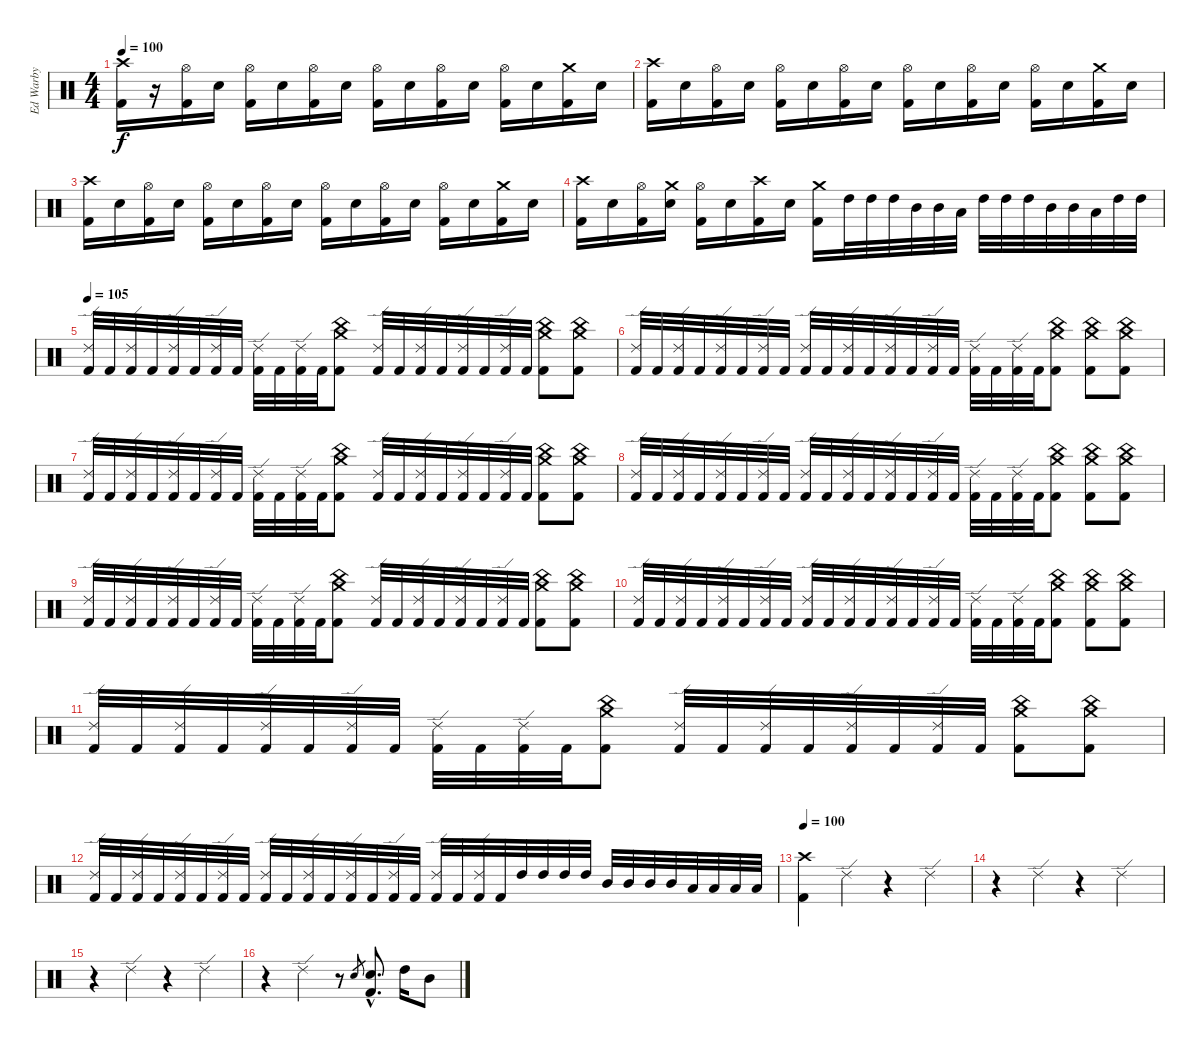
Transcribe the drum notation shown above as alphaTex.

\track ("Ed Warby" "Ed Warby") {instrument percussion}
\staff {score}
\articulation defaults
\ts (4 4)
\tempo 100
\clef neutral
\ks c
("Crash high (hit)" "Kick (hit) 2").16{dy f} r.16 ("Hi-Hat (open)" "Kick (hit) 2").16 "Snare (hit) 2".16 ("Hi-Hat (open)" "Kick (hit) 2").16 "Snare (hit) 2".16 ("Hi-Hat (open)" "Kick (hit) 2").16 "Snare (hit) 2".16 ("Hi-Hat (open)" "Kick (hit) 2").16 "Snare (hit) 2".16 ("Hi-Hat (open)" "Kick (hit) 2").16 "Snare (hit) 2".16 ("Hi-Hat (open)" "Kick (hit) 2").16 "Snare (hit) 2".16 ("Crash medium (hit)" "Kick (hit) 2").16 "Snare (hit) 2".16 |
("Crash high (hit)" "Kick (hit) 2").16 "Snare (hit) 2".16 ("Hi-Hat (open)" "Kick (hit) 2").16 "Snare (hit) 2".16 ("Hi-Hat (open)" "Kick (hit) 2").16 "Snare (hit) 2".16 ("Hi-Hat (open)" "Kick (hit) 2").16 "Snare (hit) 2".16 ("Hi-Hat (open)" "Kick (hit) 2").16 "Snare (hit) 2".16 ("Hi-Hat (open)" "Kick (hit) 2").16 "Snare (hit) 2".16 ("Hi-Hat (open)" "Kick (hit) 2").16 "Snare (hit) 2".16 ("Crash medium (hit)" "Kick (hit) 2").16 "Snare (hit) 2".16 |
("Crash high (hit)" "Kick (hit) 2").16 "Snare (hit) 2".16 ("Hi-Hat (open)" "Kick (hit) 2").16 "Snare (hit) 2".16 ("Hi-Hat (open)" "Kick (hit) 2").16 "Snare (hit) 2".16 ("Hi-Hat (open)" "Kick (hit) 2").16 "Snare (hit) 2".16 ("Hi-Hat (open)" "Kick (hit) 2").16 "Snare (hit) 2".16 ("Hi-Hat (open)" "Kick (hit) 2").16 "Snare (hit) 2".16 ("Hi-Hat (open)" "Kick (hit) 2").16 "Snare (hit) 2".16 ("Crash medium (hit)" "Kick (hit) 2").16 "Snare (hit) 2".16 |
("Crash high (hit)" "Kick (hit) 2").16 "Snare (hit) 2".16 ("Hi-Hat (open)" "Kick (hit) 2").16 ("Crash medium (hit)" "Snare (hit) 2").16 ("Hi-Hat (open)" "Kick (hit) 2").16 "Snare (hit) 2".16 ("Crash high (hit)" "Kick (hit) 2").16 "Snare (hit) 2".16 ("Crash medium (hit)" "Kick (hit) 2").16 "High Tom (hit)".32 "High Tom (hit)".32 "High Tom (hit)".32 "Mid Tom (hit)".32 "Mid Tom (hit)".32 "Low Tom (hit)".32 "High Tom (hit)".32 "High Tom (hit)".32 "High Tom (hit)".32 "Mid Tom (hit)".32 "Mid Tom (hit)".32 "Low Tom (hit)".32 "High Tom (hit)".32 "High Tom (hit)".32 |
\tempo 105
("Ride (edge) 2" "Kick (hit) 2").32 "Kick (hit) 2".32 ("Ride (edge) 2" "Kick (hit) 2").32 "Kick (hit) 2".32 ("Ride (edge) 2" "Kick (hit) 2").32 "Kick (hit) 2".32 ("Ride (edge) 2" "Kick (hit) 2").32 "Kick (hit) 2".32 ("Ride (edge) 2" "Kick (hit) 2").32 "Kick (hit) 2".32 ("Ride (edge) 2" "Kick (hit) 2").32 "Kick (hit) 2".32 ("China (hit)" "Crash medium (hit)" "Kick (hit) 2").8 ("Ride (edge) 2" "Kick (hit) 2").32 "Kick (hit) 2".32 ("Ride (edge) 2" "Kick (hit) 2").32 "Kick (hit) 2".32 ("Ride (edge) 2" "Kick (hit) 2").32 "Kick (hit) 2".32 ("Ride (edge) 2" "Kick (hit) 2").32 "Kick (hit) 2".32 ("China (hit)" "Crash medium (hit)" "Kick (hit) 2").8 ("China (hit)" "Crash medium (hit)" "Kick (hit) 2").8 |
("Ride (edge) 2" "Kick (hit) 2").32 "Kick (hit) 2".32 ("Ride (edge) 2" "Kick (hit) 2").32 "Kick (hit) 2".32 ("Ride (edge) 2" "Kick (hit) 2").32 "Kick (hit) 2".32 ("Ride (edge) 2" "Kick (hit) 2").32 "Kick (hit) 2".32 ("Ride (edge) 2" "Kick (hit) 2").32 "Kick (hit) 2".32 ("Ride (edge) 2" "Kick (hit) 2").32 "Kick (hit) 2".32 ("Ride (edge) 2" "Kick (hit) 2").32 "Kick (hit) 2".32 ("Ride (edge) 2" "Kick (hit) 2").32 "Kick (hit) 2".32 ("Ride (edge) 2" "Kick (hit) 2").32 "Kick (hit) 2".32 ("Ride (edge) 2" "Kick (hit) 2").32 "Kick (hit) 2".32 ("China (hit)" "Crash medium (hit)" "Kick (hit) 2").8 ("China (hit)" "Crash medium (hit)" "Kick (hit) 2").8 ("China (hit)" "Crash medium (hit)" "Kick (hit) 2").8 |
("Ride (edge) 2" "Kick (hit) 2").32 "Kick (hit) 2".32 ("Ride (edge) 2" "Kick (hit) 2").32 "Kick (hit) 2".32 ("Ride (edge) 2" "Kick (hit) 2").32 "Kick (hit) 2".32 ("Ride (edge) 2" "Kick (hit) 2").32 "Kick (hit) 2".32 ("Ride (edge) 2" "Kick (hit) 2").32 "Kick (hit) 2".32 ("Ride (edge) 2" "Kick (hit) 2").32 "Kick (hit) 2".32 ("China (hit)" "Crash medium (hit)" "Kick (hit) 2").8 ("Ride (edge) 2" "Kick (hit) 2").32 "Kick (hit) 2".32 ("Ride (edge) 2" "Kick (hit) 2").32 "Kick (hit) 2".32 ("Ride (edge) 2" "Kick (hit) 2").32 "Kick (hit) 2".32 ("Ride (edge) 2" "Kick (hit) 2").32 "Kick (hit) 2".32 ("China (hit)" "Crash medium (hit)" "Kick (hit) 2").8 ("China (hit)" "Crash medium (hit)" "Kick (hit) 2").8 |
("Ride (edge) 2" "Kick (hit) 2").32 "Kick (hit) 2".32 ("Ride (edge) 2" "Kick (hit) 2").32 "Kick (hit) 2".32 ("Ride (edge) 2" "Kick (hit) 2").32 "Kick (hit) 2".32 ("Ride (edge) 2" "Kick (hit) 2").32 "Kick (hit) 2".32 ("Ride (edge) 2" "Kick (hit) 2").32 "Kick (hit) 2".32 ("Ride (edge) 2" "Kick (hit) 2").32 "Kick (hit) 2".32 ("Ride (edge) 2" "Kick (hit) 2").32 "Kick (hit) 2".32 ("Ride (edge) 2" "Kick (hit) 2").32 "Kick (hit) 2".32 ("Ride (edge) 2" "Kick (hit) 2").32 "Kick (hit) 2".32 ("Ride (edge) 2" "Kick (hit) 2").32 "Kick (hit) 2".32 ("China (hit)" "Crash medium (hit)" "Kick (hit) 2").8 ("China (hit)" "Crash medium (hit)" "Kick (hit) 2").8 ("China (hit)" "Crash medium (hit)" "Kick (hit) 2").8 |
("Ride (edge) 2" "Kick (hit) 2").32 "Kick (hit) 2".32 ("Ride (edge) 2" "Kick (hit) 2").32 "Kick (hit) 2".32 ("Ride (edge) 2" "Kick (hit) 2").32 "Kick (hit) 2".32 ("Ride (edge) 2" "Kick (hit) 2").32 "Kick (hit) 2".32 ("Ride (edge) 2" "Kick (hit) 2").32 "Kick (hit) 2".32 ("Ride (edge) 2" "Kick (hit) 2").32 "Kick (hit) 2".32 ("China (hit)" "Crash medium (hit)" "Kick (hit) 2").8 ("Ride (edge) 2" "Kick (hit) 2").32 "Kick (hit) 2".32 ("Ride (edge) 2" "Kick (hit) 2").32 "Kick (hit) 2".32 ("Ride (edge) 2" "Kick (hit) 2").32 "Kick (hit) 2".32 ("Ride (edge) 2" "Kick (hit) 2").32 "Kick (hit) 2".32 ("China (hit)" "Crash medium (hit)" "Kick (hit) 2").8 ("China (hit)" "Crash medium (hit)" "Kick (hit) 2").8 |
("Ride (edge) 2" "Kick (hit) 2").32 "Kick (hit) 2".32 ("Ride (edge) 2" "Kick (hit) 2").32 "Kick (hit) 2".32 ("Ride (edge) 2" "Kick (hit) 2").32 "Kick (hit) 2".32 ("Ride (edge) 2" "Kick (hit) 2").32 "Kick (hit) 2".32 ("Ride (edge) 2" "Kick (hit) 2").32 "Kick (hit) 2".32 ("Ride (edge) 2" "Kick (hit) 2").32 "Kick (hit) 2".32 ("Ride (edge) 2" "Kick (hit) 2").32 "Kick (hit) 2".32 ("Ride (edge) 2" "Kick (hit) 2").32 "Kick (hit) 2".32 ("Ride (edge) 2" "Kick (hit) 2").32 "Kick (hit) 2".32 ("Ride (edge) 2" "Kick (hit) 2").32 "Kick (hit) 2".32 ("China (hit)" "Crash medium (hit)" "Kick (hit) 2").8 ("China (hit)" "Crash medium (hit)" "Kick (hit) 2").8 ("China (hit)" "Crash medium (hit)" "Kick (hit) 2").8 |
("Ride (edge) 2" "Kick (hit) 2").32 "Kick (hit) 2".32 ("Ride (edge) 2" "Kick (hit) 2").32 "Kick (hit) 2".32 ("Ride (edge) 2" "Kick (hit) 2").32 "Kick (hit) 2".32 ("Ride (edge) 2" "Kick (hit) 2").32 "Kick (hit) 2".32 ("Ride (edge) 2" "Kick (hit) 2").32 "Kick (hit) 2".32 ("Ride (edge) 2" "Kick (hit) 2").32 "Kick (hit) 2".32 ("China (hit)" "Crash medium (hit)" "Kick (hit) 2").8 ("Ride (edge) 2" "Kick (hit) 2").32 "Kick (hit) 2".32 ("Ride (edge) 2" "Kick (hit) 2").32 "Kick (hit) 2".32 ("Ride (edge) 2" "Kick (hit) 2").32 "Kick (hit) 2".32 ("Ride (edge) 2" "Kick (hit) 2").32 "Kick (hit) 2".32 ("China (hit)" "Crash medium (hit)" "Kick (hit) 2").8 ("China (hit)" "Crash medium (hit)" "Kick (hit) 2").8 |
("Ride (edge) 2" "Kick (hit) 2").32 "Kick (hit) 2".32 ("Ride (edge) 2" "Kick (hit) 2").32 "Kick (hit) 2".32 ("Ride (edge) 2" "Kick (hit) 2").32 "Kick (hit) 2".32 ("Ride (edge) 2" "Kick (hit) 2").32 "Kick (hit) 2".32 ("Ride (edge) 2" "Kick (hit) 2").32 "Kick (hit) 2".32 ("Ride (edge) 2" "Kick (hit) 2").32 "Kick (hit) 2".32 ("Ride (edge) 2" "Kick (hit) 2").32 "Kick (hit) 2".32 ("Ride (edge) 2" "Kick (hit) 2").32 "Kick (hit) 2".32 ("Ride (edge) 2" "Kick (hit) 2").32 "Kick (hit) 2".32 ("Ride (edge) 2" "Kick (hit) 2").32 "Kick (hit) 2".32 "High Tom (hit)".32 "High Tom (hit)".32 "High Tom (hit)".32 "High Tom (hit)".32 "Mid Tom (hit)".32 "Mid Tom (hit)".32 "Mid Tom (hit)".32 "Mid Tom (hit)".32 "Low Tom (hit)".32 "Low Tom (hit)".32 "Low Tom (hit)".32 "Low Tom (hit)".32 |
\tempo 100
("Crash high (hit)" "Kick (hit) 2").4 "Ride (edge) 2".4 r.4 "Ride (edge) 2".4 |
r.4 "Ride (edge) 2".4 r.4 "Ride (edge) 2".4 |
r.4 "Ride (edge) 2".4 r.4 "Ride (edge) 2".4 |
r.4 "Ride (edge) 2".4 r.8 "Electric Snare (hit)".8{gr} ("Electric Snare (hit)"{hac} "Kick (hit) 2"{hac}).8{d} "High Tom (hit)".16 "Mid Tom (hit)".8
